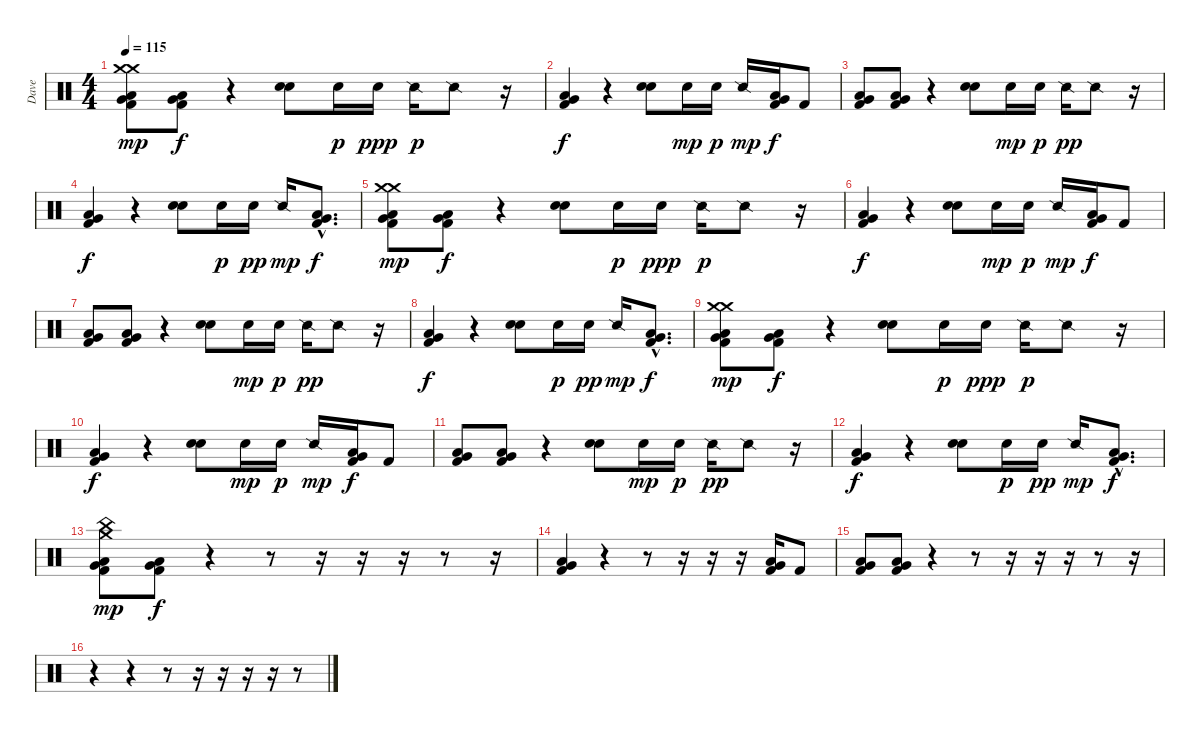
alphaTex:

\track ("Dave" "Dave") {instrument percussion}
\staff {score}
\articulation defaults
\ts (4 4)
\tempo 115
\clef neutral
\ks c
("Crash medium (hit)" "Crash medium (hit)" "Very Low Tom (hit)" "Low Floor Tom (hit)" "Kick (hit) 2").8{dy mp} ("Very Low Tom (hit)" "Low Floor Tom (hit)" "Kick (hit) 2").8{dy f} r.4 ("Hand Clap (hit)" "Electric Snare (hit)").8 "Hand Clap (hit)".16{dy p} "Hand Clap (hit)".16{dy ppp} "Snare (side stick) 2".16{dy p} "Snare (side stick) 2".8 r.16 |
("Very Low Tom (hit)" "Low Floor Tom (hit)" "Kick (hit) 2").4{dy f} r.4 ("Hand Clap (hit)" "Electric Snare (hit)").8 "Hand Clap (hit)".16{dy mp} "Hand Clap (hit)".16{dy p} "Snare (side stick) 2".16{dy mp} ("Very Low Tom (hit)" "Low Floor Tom (hit)" "Kick (hit) 2").16{dy f} "Kick (hit) 2".8 |
("Very Low Tom (hit)" "Low Floor Tom (hit)" "Kick (hit) 2").8 ("Very Low Tom (hit)" "Low Floor Tom (hit)" "Kick (hit) 2").8 r.4 ("Hand Clap (hit)" "Electric Snare (hit)").8 "Hand Clap (hit)".16{dy mp} "Hand Clap (hit)".16{dy p} "Snare (side stick) 2".16{dy pp} "Snare (side stick) 2".8 r.16 |
("Very Low Tom (hit)" "Low Floor Tom (hit)" "Kick (hit) 2").4{dy f} r.4 ("Hand Clap (hit)" "Electric Snare (hit)").8 "Hand Clap (hit)".16{dy p} "Hand Clap (hit)".16{dy pp} "Snare (side stick) 2".16{dy mp} ("Very Low Tom (hit)"{hac} "Low Floor Tom (hit)"{hac} "Kick (hit) 2"{hac}).8{d dy f} |
("Crash medium (hit)" "Crash medium (hit)" "Very Low Tom (hit)" "Low Floor Tom (hit)" "Kick (hit) 2").8{dy mp} ("Very Low Tom (hit)" "Low Floor Tom (hit)" "Kick (hit) 2").8{dy f} r.4 ("Hand Clap (hit)" "Electric Snare (hit)").8 "Hand Clap (hit)".16{dy p} "Hand Clap (hit)".16{dy ppp} "Snare (side stick) 2".16{dy p} "Snare (side stick) 2".8 r.16 |
("Very Low Tom (hit)" "Low Floor Tom (hit)" "Kick (hit) 2").4{dy f} r.4 ("Hand Clap (hit)" "Electric Snare (hit)").8 "Hand Clap (hit)".16{dy mp} "Hand Clap (hit)".16{dy p} "Snare (side stick) 2".16{dy mp} ("Very Low Tom (hit)" "Low Floor Tom (hit)" "Kick (hit) 2").16{dy f} "Kick (hit) 2".8 |
("Very Low Tom (hit)" "Low Floor Tom (hit)" "Kick (hit) 2").8 ("Very Low Tom (hit)" "Low Floor Tom (hit)" "Kick (hit) 2").8 r.4 ("Hand Clap (hit)" "Electric Snare (hit)").8 "Hand Clap (hit)".16{dy mp} "Hand Clap (hit)".16{dy p} "Snare (side stick) 2".16{dy pp} "Snare (side stick) 2".8 r.16 |
("Very Low Tom (hit)" "Low Floor Tom (hit)" "Kick (hit) 2").4{dy f} r.4 ("Hand Clap (hit)" "Electric Snare (hit)").8 "Hand Clap (hit)".16{dy p} "Hand Clap (hit)".16{dy pp} "Snare (side stick) 2".16{dy mp} ("Very Low Tom (hit)"{hac} "Low Floor Tom (hit)"{hac} "Kick (hit) 2"{hac}).8{d dy f} |
("Crash medium (hit)" "Crash medium (hit)" "Very Low Tom (hit)" "Low Floor Tom (hit)" "Kick (hit) 2").8{dy mp} ("Very Low Tom (hit)" "Low Floor Tom (hit)" "Kick (hit) 2").8{dy f} r.4 ("Hand Clap (hit)" "Electric Snare (hit)").8 "Hand Clap (hit)".16{dy p} "Hand Clap (hit)".16{dy ppp} "Snare (side stick) 2".16{dy p} "Snare (side stick) 2".8 r.16 |
("Very Low Tom (hit)" "Low Floor Tom (hit)" "Kick (hit) 2").4{dy f} r.4 ("Hand Clap (hit)" "Electric Snare (hit)").8 "Hand Clap (hit)".16{dy mp} "Hand Clap (hit)".16{dy p} "Snare (side stick) 2".16{dy mp} ("Very Low Tom (hit)" "Low Floor Tom (hit)" "Kick (hit) 2").16{dy f} "Kick (hit) 2".8 |
("Very Low Tom (hit)" "Low Floor Tom (hit)" "Kick (hit) 2").8 ("Very Low Tom (hit)" "Low Floor Tom (hit)" "Kick (hit) 2").8 r.4 ("Hand Clap (hit)" "Electric Snare (hit)").8 "Hand Clap (hit)".16{dy mp} "Hand Clap (hit)".16{dy p} "Snare (side stick) 2".16{dy pp} "Snare (side stick) 2".8 r.16 |
("Very Low Tom (hit)" "Low Floor Tom (hit)" "Kick (hit) 2").4{dy f} r.4 ("Hand Clap (hit)" "Electric Snare (hit)").8 "Hand Clap (hit)".16{dy p} "Hand Clap (hit)".16{dy pp} "Snare (side stick) 2".16{dy mp} ("Very Low Tom (hit)"{hac} "Low Floor Tom (hit)"{hac} "Kick (hit) 2"{hac}).8{d dy f} |
("Crash medium (hit)" "China (hit)" "Very Low Tom (hit)" "Low Floor Tom (hit)" "Kick (hit) 2").8{dy mp} ("Very Low Tom (hit)" "Low Floor Tom (hit)" "Kick (hit) 2").8{dy f} r.4 r.8 r.16 r.16 r.16 r.8 r.16 |
("Very Low Tom (hit)" "Low Floor Tom (hit)" "Kick (hit) 2").4 r.4 r.8 r.16 r.16 r.16 ("Very Low Tom (hit)" "Low Floor Tom (hit)" "Kick (hit) 2").16 "Kick (hit) 2".8 |
("Very Low Tom (hit)" "Low Floor Tom (hit)" "Kick (hit) 2").8 ("Very Low Tom (hit)" "Low Floor Tom (hit)" "Kick (hit) 2").8 r.4 r.8 r.16 r.16 r.16 r.8 r.16 |
r.4 r.4 r.8 r.16 r.16 r.16 r.16 r.8
